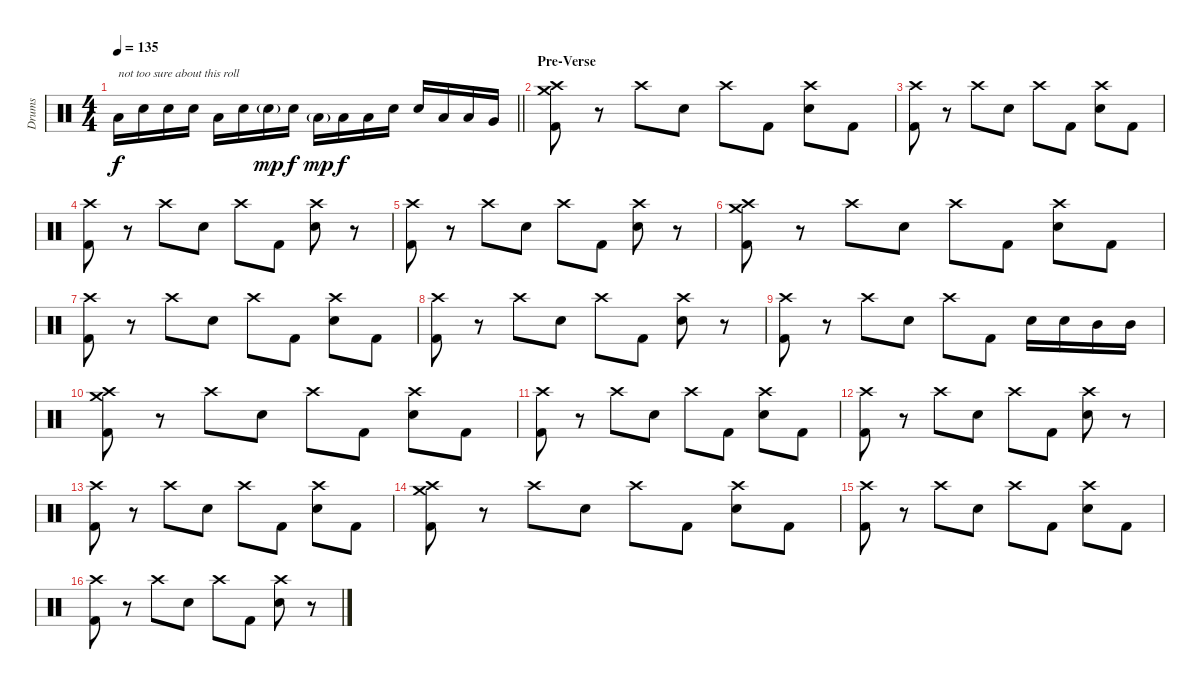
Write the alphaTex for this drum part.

\track ("Drums" "Drums") {instrument percussion}
\staff {score}
\articulation defaults
\ts (4 4)
\tempo 135
\clef neutral
\barLineRight lightlight
\ks c "Low Tom (hit)".16{txt "not too sure about this roll" dy f} "Electric Snare (hit)".16 "Electric Snare (hit)".16 "Electric Snare (hit)".16 "Low Tom (hit)".16 "Electric Snare (hit)".16 "Electric Snare (hit)"{g}.16{dy mp} "Electric Snare (hit)".16{dy f} "Low Tom (hit)"{g}.16{dy mp} "Low Tom (hit)".16{dy f} "Low Tom (hit)".16 "Electric Snare (hit)".16 "Electric Snare (hit)".16 "Low Tom (hit)".16 "Low Tom (hit)".16 "Very Low Tom (hit)".16
|
\section ("" "Pre-Verse")
("Crash high (hit)" "Crash medium (hit)" "Kick (hit) 2").8 r.8 "Crash high (hit)".8 "Electric Snare (hit)".8 "Crash high (hit)".8 "Kick (hit) 2".8 ("Crash high (hit)" "Electric Snare (hit)").8 "Kick (hit) 2".8 |
("Crash high (hit)" "Kick (hit) 2").8 r.8 "Crash high (hit)".8 "Electric Snare (hit)".8 "Crash high (hit)".8 "Kick (hit) 2".8 ("Crash high (hit)" "Electric Snare (hit)").8 "Kick (hit) 2".8 |
("Crash high (hit)" "Kick (hit) 2").8 r.8 "Crash high (hit)".8 "Electric Snare (hit)".8 "Crash high (hit)".8 "Kick (hit) 2".8 ("Crash high (hit)" "Electric Snare (hit)").8 r.8 |
("Crash high (hit)" "Kick (hit) 2").8 r.8 "Crash high (hit)".8 "Electric Snare (hit)".8 "Crash high (hit)".8 "Kick (hit) 2".8 ("Crash high (hit)" "Electric Snare (hit)").8 r.8 |
("Crash high (hit)" "Crash medium (hit)" "Kick (hit) 2").8 r.8 "Crash high (hit)".8 "Electric Snare (hit)".8 "Crash high (hit)".8 "Kick (hit) 2".8 ("Crash high (hit)" "Electric Snare (hit)").8 "Kick (hit) 2".8 |
("Crash high (hit)" "Kick (hit) 2").8 r.8 "Crash high (hit)".8 "Electric Snare (hit)".8 "Crash high (hit)".8 "Kick (hit) 2".8 ("Crash high (hit)" "Electric Snare (hit)").8 "Kick (hit) 2".8 |
("Crash high (hit)" "Kick (hit) 2").8 r.8 "Crash high (hit)".8 "Electric Snare (hit)".8 "Crash high (hit)".8 "Kick (hit) 2".8 ("Crash high (hit)" "Electric Snare (hit)").8 r.8 |
("Crash high (hit)" "Kick (hit) 2").8 r.8 "Crash high (hit)".8 "Electric Snare (hit)".8 "Crash high (hit)".8 "Kick (hit) 2".8 "Electric Snare (hit)".16 "Electric Snare (hit)".16 "Mid Tom (hit)".16 "Mid Tom (hit)".16 |
("Crash high (hit)" "Crash medium (hit)" "Kick (hit) 2").8 r.8 "Crash high (hit)".8 "Electric Snare (hit)".8 "Crash high (hit)".8 "Kick (hit) 2".8 ("Crash high (hit)" "Electric Snare (hit)").8 "Kick (hit) 2".8 |
("Crash high (hit)" "Kick (hit) 2").8 r.8 "Crash high (hit)".8 "Electric Snare (hit)".8 "Crash high (hit)".8 "Kick (hit) 2".8 ("Crash high (hit)" "Electric Snare (hit)").8 "Kick (hit) 2".8 |
("Crash high (hit)" "Kick (hit) 2").8 r.8 "Crash high (hit)".8 "Electric Snare (hit)".8 "Crash high (hit)".8 "Kick (hit) 2".8 ("Crash high (hit)" "Electric Snare (hit)").8 r.8 |
("Crash high (hit)" "Kick (hit) 2").8 r.8 "Crash high (hit)".8 "Electric Snare (hit)".8 "Crash high (hit)".8 "Kick (hit) 2".8 ("Crash high (hit)" "Electric Snare (hit)").8 "Kick (hit) 2".8 |
("Crash high (hit)" "Crash medium (hit)" "Kick (hit) 2").8 r.8 "Crash high (hit)".8 "Electric Snare (hit)".8 "Crash high (hit)".8 "Kick (hit) 2".8 ("Crash high (hit)" "Electric Snare (hit)").8 "Kick (hit) 2".8 |
("Crash high (hit)" "Kick (hit) 2").8 r.8 "Crash high (hit)".8 "Electric Snare (hit)".8 "Crash high (hit)".8 "Kick (hit) 2".8 ("Crash high (hit)" "Electric Snare (hit)").8 "Kick (hit) 2".8 |
("Crash high (hit)" "Kick (hit) 2").8 r.8 "Crash high (hit)".8 "Electric Snare (hit)".8 "Crash high (hit)".8 "Kick (hit) 2".8 ("Crash high (hit)" "Electric Snare (hit)").8 r.8
